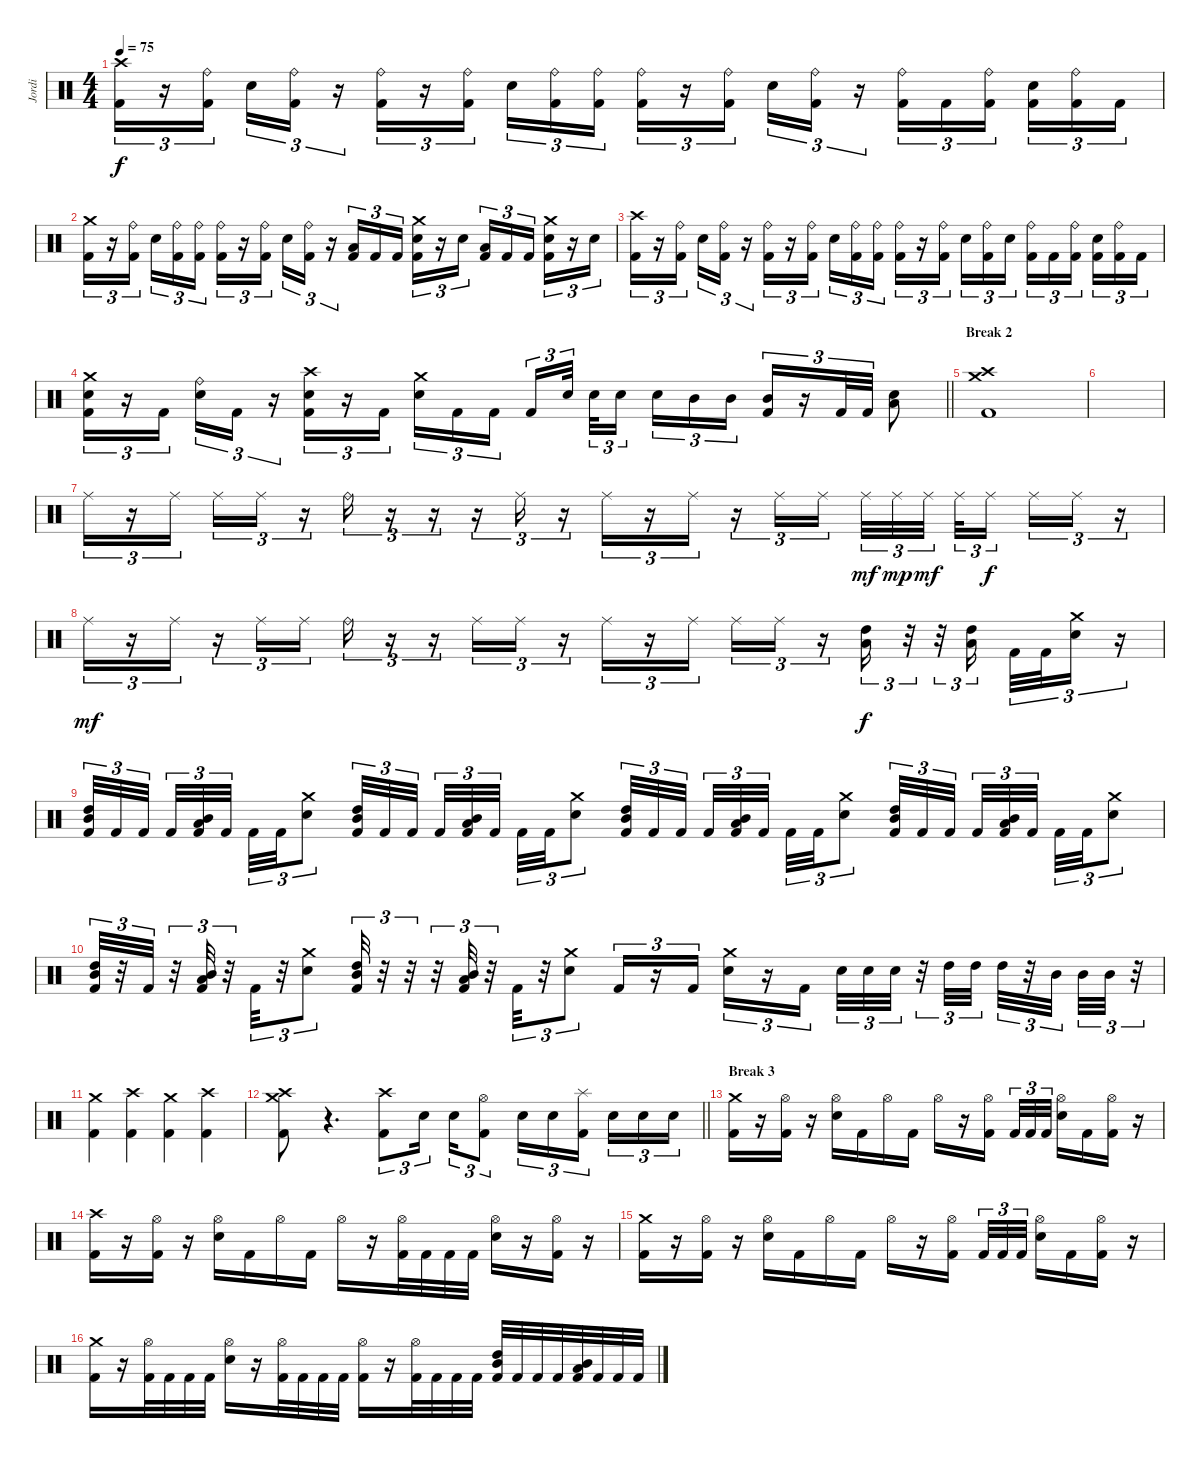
\track ("Jordi" "Jordi") {instrument percussion}
\staff {score}
\articulation defaults
\ts (4 4)
\tempo 75
\clef neutral
\ks c
("Crash high (hit)" "Kick (hit) 2").16{tu (3 2) dy f} r.16{tu (3 2)} ("Ride (bell)" "Kick (hit) 2").16{tu (3 2) beam splitsecondary} "Snare (hit) 2".16{tu (3 2)} ("Ride (bell)" "Kick (hit) 2").16{tu (3 2)} r.16{tu (3 2)} ("Ride (bell)" "Kick (hit) 2").16{tu (3 2)} r.16{tu (3 2)} ("Ride (bell)" "Kick (hit) 2").16{tu (3 2) beam splitsecondary} "Snare (hit) 2".16{tu (3 2)} ("Ride (bell)" "Kick (hit) 2").16{tu (3 2)} ("Ride (bell)" "Kick (hit) 2").16{tu (3 2)} ("Ride (bell)" "Kick (hit) 2").16{tu (3 2)} r.16{tu (3 2)} ("Ride (bell)" "Kick (hit) 2").16{tu (3 2) beam splitsecondary} "Snare (hit) 2".16{tu (3 2)} ("Ride (bell)" "Kick (hit) 2").16{tu (3 2)} r.16{tu (3 2)} ("Ride (bell)" "Kick (hit) 2").16{tu (3 2)} "Kick (hit) 2".16{tu (3 2)} ("Ride (bell)" "Kick (hit) 2").16{tu (3 2) beam splitsecondary} ("Snare (hit) 2" "Kick (hit) 2").16{tu (3 2)} ("Ride (bell)" "Kick (hit) 2").16{tu (3 2)} "Kick (hit) 2".16{tu (3 2)} |
("Crash medium (hit)" "Kick (hit) 2").16{tu (3 2)} r.16{tu (3 2)} ("Ride (bell)" "Kick (hit) 2").16{tu (3 2) beam splitsecondary} "Snare (hit) 2".16{tu (3 2)} ("Ride (bell)" "Kick (hit) 2").16{tu (3 2)} ("Ride (bell)" "Kick (hit) 2").16{tu (3 2)} ("Ride (bell)" "Kick (hit) 2").16{tu (3 2)} r.16{tu (3 2)} ("Ride (bell)" "Kick (hit) 2").16{tu (3 2) beam splitsecondary} "Snare (hit) 2".16{tu (3 2)} ("Ride (bell)" "Kick (hit) 2").16{tu (3 2)} r.16{tu (3 2)} ("Low Tom (hit)" "Kick (hit) 2").16{tu (3 2)} "Kick (hit) 2".16{tu (3 2)} "Kick (hit) 2".16{tu (3 2) beam splitsecondary} ("Crash medium (hit)" "Snare (hit) 2" "Kick (hit) 2").16{tu (3 2)} r.16{tu (3 2)} "Snare (hit) 2".16{tu (3 2)} ("Low Tom (hit)" "Kick (hit) 2").16{tu (3 2)} "Kick (hit) 2".16{tu (3 2)} "Kick (hit) 2".16{tu (3 2) beam splitsecondary} ("Crash medium (hit)" "Snare (hit) 2" "Kick (hit) 2").16{tu (3 2)} r.16{tu (3 2)} "Snare (hit) 2".16{tu (3 2)} |
("Crash high (hit)" "Kick (hit) 2").16{tu (3 2)} r.16{tu (3 2)} ("Ride (bell)" "Kick (hit) 2").16{tu (3 2) beam splitsecondary} "Snare (hit) 2".16{tu (3 2)} ("Ride (bell)" "Kick (hit) 2").16{tu (3 2)} r.16{tu (3 2)} ("Ride (bell)" "Kick (hit) 2").16{tu (3 2)} r.16{tu (3 2)} ("Ride (bell)" "Kick (hit) 2").16{tu (3 2) beam splitsecondary} "Snare (hit) 2".16{tu (3 2)} ("Ride (bell)" "Kick (hit) 2").16{tu (3 2)} ("Ride (bell)" "Kick (hit) 2").16{tu (3 2)} ("Ride (bell)" "Kick (hit) 2").16{tu (3 2)} r.16{tu (3 2)} ("Ride (bell)" "Kick (hit) 2").16{tu (3 2) beam splitsecondary} "Snare (hit) 2".16{tu (3 2)} ("Ride (bell)" "Kick (hit) 2").16{tu (3 2)} "Snare (hit) 2".16{tu (3 2)} ("Ride (bell)" "Kick (hit) 2").16{tu (3 2)} "Kick (hit) 2".16{tu (3 2)} ("Ride (bell)" "Kick (hit) 2").16{tu (3 2) beam splitsecondary} ("Snare (hit) 2" "Kick (hit) 2").16{tu (3 2)} ("Ride (bell)" "Kick (hit) 2").16{tu (3 2)} "Kick (hit) 2".16{tu (3 2)} |
\barLineRight lightlight
("Crash medium (hit)" "Snare (hit) 2" "Kick (hit) 2").16{tu (3 2)} r.16{tu (3 2)} "Kick (hit) 2".16{tu (3 2) beam splitsecondary} ("Ride (bell)" "Snare (hit) 2").16{tu (3 2)} "Kick (hit) 2".16{tu (3 2)} r.16{tu (3 2)} ("Crash high (hit)" "Snare (hit) 2" "Kick (hit) 2").16{tu (3 2)} r.16{tu (3 2)} "Kick (hit) 2".16{tu (3 2) beam splitsecondary} ("Crash medium (hit)" "Snare (hit) 2").16{tu (3 2)} "Kick (hit) 2".16{tu (3 2)} "Kick (hit) 2".16{tu (3 2)} "Kick (hit) 2".16{tu (3 2)} "Snare (hit) 2".32{tu (3 2) beam splitsecondary} "Snare (hit) 2".32{tu (3 2)} "Snare (hit) 2".16{tu (3 2) beam splitsecondary} "Snare (hit) 2".16{tu (3 2)} "Mid Tom (hit)".16{tu (3 2)} "Mid Tom (hit)".16{tu (3 2)} ("Mid Tom (hit)" "Kick (hit) 2").16{tu (3 2)} r.16{tu (3 2)} "Kick (hit) 2".32{tu (3 2)} "Kick (hit) 2".32{tu (3 2)} ("Low Tom (hit)" "Snare (hit) 2").8 |
\section ("" "Break 2")
("Crash high (hit)" "Crash medium (hit)" "Kick (hit) 2").1 |
|
"Ride (middle)".16{tu (3 2)} r.16{tu (3 2)} "Ride (middle)".16{tu (3 2) beam splitsecondary} "Ride (middle)".16{tu (3 2)} "Ride (middle)".16{tu (3 2)} r.16{tu (3 2)} "Ride (bell)".16{tu (3 2)} r.16{tu (3 2)} r.16{tu (3 2)} r.16{tu (3 2)} "Ride (middle)".16{tu (3 2)} r.16{tu (3 2)} "Ride (middle)".16{tu (3 2)} r.16{tu (3 2)} "Ride (middle)".16{tu (3 2)} r.16{tu (3 2)} "Ride (middle)".16{tu (3 2)} "Ride (middle)".16{tu (3 2)} "Ride (middle)".32{tu (3 2) dy mf} "Ride (middle)".32{tu (3 2) dy mp} "Ride (middle)".32{tu (3 2) dy mf beam splitsecondary} "Ride (middle)".32{tu (3 2)} "Ride (middle)".16{tu (3 2) dy f beam splitsecondary} "Ride (middle)".16{tu (3 2)} "Ride (middle)".16{tu (3 2)} r.16{tu (3 2)} |
"Ride (middle)".16{tu (3 2) dy mf} r.16{tu (3 2)} "Ride (middle)".16{tu (3 2)} r.16{tu (3 2)} "Ride (middle)".16{tu (3 2)} "Ride (middle)".16{tu (3 2)} "Ride (bell)".16{tu (3 2)} r.16{tu (3 2)} r.16{tu (3 2)} "Ride (middle)".16{tu (3 2)} "Ride (middle)".16{tu (3 2)} r.16{tu (3 2)} "Ride (middle)".16{tu (3 2)} r.16{tu (3 2)} "Ride (middle)".16{tu (3 2) beam splitsecondary} "Ride (middle)".16{tu (3 2)} "Ride (middle)".16{tu (3 2)} r.16{tu (3 2)} ("High Tom (hit)" "Low Tom (hit)").16{tu (3 2) dy f} r.32{tu (3 2)} r.32{tu (3 2)} ("High Tom (hit)" "Low Tom (hit)").16{tu (3 2) beam splitsecondary} "Kick (hit) 2".32{tu (3 2)} "Kick (hit) 2".32{tu (3 2)} ("Crash medium (hit)" "Snare (hit) 2").16{tu (3 2)} r.16{tu (3 2)} |
("High Tom (hit)" "Mid Tom (hit)" "Kick (hit) 2").32{tu (3 2)} "Kick (hit) 2".32{tu (3 2)} "Kick (hit) 2".32{tu (3 2) beam splitsecondary} "Kick (hit) 2".32{tu (3 2)} ("Mid Tom (hit)" "Low Tom (hit)" "Kick (hit) 2").32{tu (3 2)} "Kick (hit) 2".32{tu (3 2) beam splitsecondary} "Kick (hit) 2".32{tu (3 2)} "Kick (hit) 2".32{tu (3 2)} ("Crash medium (hit)" "Snare (hit) 2").8{tu (3 2)} ("High Tom (hit)" "Mid Tom (hit)" "Kick (hit) 2").32{tu (3 2)} "Kick (hit) 2".32{tu (3 2)} "Kick (hit) 2".32{tu (3 2) beam splitsecondary} "Kick (hit) 2".32{tu (3 2)} ("Mid Tom (hit)" "Low Tom (hit)" "Kick (hit) 2").32{tu (3 2)} "Kick (hit) 2".32{tu (3 2) beam splitsecondary} "Kick (hit) 2".32{tu (3 2)} "Kick (hit) 2".32{tu (3 2)} ("Crash medium (hit)" "Snare (hit) 2").8{tu (3 2)} ("High Tom (hit)" "Mid Tom (hit)" "Kick (hit) 2").32{tu (3 2)} "Kick (hit) 2".32{tu (3 2)} "Kick (hit) 2".32{tu (3 2) beam splitsecondary} "Kick (hit) 2".32{tu (3 2)} ("Mid Tom (hit)" "Low Tom (hit)" "Kick (hit) 2").32{tu (3 2)} "Kick (hit) 2".32{tu (3 2) beam splitsecondary} "Kick (hit) 2".32{tu (3 2)} "Kick (hit) 2".32{tu (3 2)} ("Crash medium (hit)" "Snare (hit) 2").8{tu (3 2)} ("High Tom (hit)" "Mid Tom (hit)" "Kick (hit) 2").32{tu (3 2)} "Kick (hit) 2".32{tu (3 2)} "Kick (hit) 2".32{tu (3 2) beam splitsecondary} "Kick (hit) 2".32{tu (3 2)} ("Mid Tom (hit)" "Low Tom (hit)" "Kick (hit) 2").32{tu (3 2)} "Kick (hit) 2".32{tu (3 2) beam splitsecondary} "Kick (hit) 2".32{tu (3 2)} "Kick (hit) 2".32{tu (3 2)} ("Crash medium (hit)" "Snare (hit) 2").8{tu (3 2)} |
("High Tom (hit)" "Mid Tom (hit)" "Kick (hit) 2").32{tu (3 2)} r.32{tu (3 2)} "Kick (hit) 2".32{tu (3 2)} r.32{tu (3 2)} ("Mid Tom (hit)" "Low Tom (hit)" "Kick (hit) 2").32{tu (3 2)} r.32{tu (3 2)} "Kick (hit) 2".32{tu (3 2)} r.32{tu (3 2)} ("Crash medium (hit)" "Snare (hit) 2").8{tu (3 2)} ("High Tom (hit)" "Mid Tom (hit)" "Kick (hit) 2").32{tu (3 2)} r.32{tu (3 2)} r.32{tu (3 2)} r.32{tu (3 2)} ("Mid Tom (hit)" "Low Tom (hit)" "Kick (hit) 2").32{tu (3 2)} r.32{tu (3 2)} "Kick (hit) 2".32{tu (3 2)} r.32{tu (3 2)} ("Crash medium (hit)" "Snare (hit) 2").8{tu (3 2)} "Kick (hit) 2".16{tu (3 2)} r.16{tu (3 2)} "Kick (hit) 2".16{tu (3 2)} ("Crash medium (hit)" "Snare (hit) 2").16{tu (3 2)} r.16{tu (3 2)} "Kick (hit) 2".16{tu (3 2)} "Snare (hit) 2".32{tu (3 2)} "Snare (hit) 2".32{tu (3 2)} "Snare (hit) 2".32{tu (3 2)} r.32{tu (3 2)} "High Tom (hit)".32{tu (3 2)} "High Tom (hit)".32{tu (3 2) beam splitsecondary} "High Tom (hit)".32{tu (3 2)} r.32{tu (3 2)} "Mid Tom (hit)".32{tu (3 2) beam splitsecondary} "Mid Tom (hit)".32{tu (3 2)} "Mid Tom (hit)".32{tu (3 2)} r.32{tu (3 2)} |
("Crash medium (hit)" "Kick (hit) 2").4 ("Crash high (hit)" "Kick (hit) 2").4 ("Crash medium (hit)" "Kick (hit) 2").4 ("Crash high (hit)" "Kick (hit) 2").4 |
\barLineRight lightlight
("Crash medium (hit)" "Crash high (hit)" "Kick (hit) 2").8 r.4{d} ("Crash high (hit)" "Kick (hit) 2").8{tu (3 2)} "Snare (hit) 2".16{tu (3 2) beam splitsecondary} "Snare (hit) 2".16{tu (3 2)} ("Hi-Hat (open)" "Kick (hit) 2").8{tu (3 2)} "Snare (hit) 2".16{tu (3 2)} "Snare (hit) 2".16{tu (3 2)} ("Splash (hit)" "Kick (hit) 2").16{tu (3 2) beam splitsecondary} "Snare (hit) 2".16{tu (3 2)} "Snare (hit) 2".16{tu (3 2)} "Snare (hit) 2".16{tu (3 2)} |
\section ("" "Break 3")
("Crash medium (hit)" "Kick (hit) 2").16 r.16 ("Hi-Hat (open)" "Kick (hit) 2").16 r.16 ("Hi-Hat (open)" "Snare (hit) 2").16 "Kick (hit) 2".16 "Hi-Hat (open)".16 "Kick (hit) 2".16 "Hi-Hat (open)".16 r.16 ("Hi-Hat (open)" "Kick (hit) 2").16{beam splitsecondary} "Kick (hit) 2".32{tu (3 2)} "Kick (hit) 2".32{tu (3 2)} "Kick (hit) 2".32{tu (3 2)} ("Hi-Hat (open)" "Snare (hit) 2").16 "Kick (hit) 2".16 ("Hi-Hat (open)" "Kick (hit) 2").16 r.16 |
("Crash high (hit)" "Kick (hit) 2").16 r.16 ("Hi-Hat (open)" "Kick (hit) 2").16 r.16 ("Hi-Hat (open)" "Snare (hit) 2").16 "Kick (hit) 2".16 "Hi-Hat (open)".16 "Kick (hit) 2".16 "Hi-Hat (open)".16 r.16 ("Hi-Hat (open)" "Kick (hit) 2").32 "Kick (hit) 2".32 "Kick (hit) 2".32 "Kick (hit) 2".32 ("Hi-Hat (open)" "Snare (hit) 2").16 r.16 ("Hi-Hat (open)" "Kick (hit) 2").16 r.16 |
("Crash medium (hit)" "Kick (hit) 2").16 r.16 ("Hi-Hat (open)" "Kick (hit) 2").16 r.16 ("Hi-Hat (open)" "Snare (hit) 2").16 "Kick (hit) 2".16 "Hi-Hat (open)".16 "Kick (hit) 2".16 "Hi-Hat (open)".16 r.16 ("Hi-Hat (open)" "Kick (hit) 2").16{beam splitsecondary} "Kick (hit) 2".32{tu (3 2)} "Kick (hit) 2".32{tu (3 2)} "Kick (hit) 2".32{tu (3 2)} ("Hi-Hat (open)" "Snare (hit) 2").16 "Kick (hit) 2".16 ("Hi-Hat (open)" "Kick (hit) 2").16 r.16 |
("Crash medium (hit)" "Kick (hit) 2").16 r.16 ("Hi-Hat (open)" "Kick (hit) 2").32 "Kick (hit) 2".32 "Kick (hit) 2".32 "Kick (hit) 2".32 ("Hi-Hat (open)" "Snare (hit) 2").16 r.16 ("Hi-Hat (open)" "Kick (hit) 2").32 "Kick (hit) 2".32 "Kick (hit) 2".32 "Kick (hit) 2".32 ("Hi-Hat (open)" "Kick (hit) 2").16 r.16 ("Hi-Hat (open)" "Kick (hit) 2").32 "Kick (hit) 2".32 "Kick (hit) 2".32 "Kick (hit) 2".32 ("High Tom (hit)" "Mid Tom (hit)" "Kick (hit) 2").32 "Kick (hit) 2".32 "Kick (hit) 2".32 "Kick (hit) 2".32 ("Mid Tom (hit)" "Low Tom (hit)" "Kick (hit) 2").32 "Kick (hit) 2".32 "Kick (hit) 2".32 "Kick (hit) 2".32
